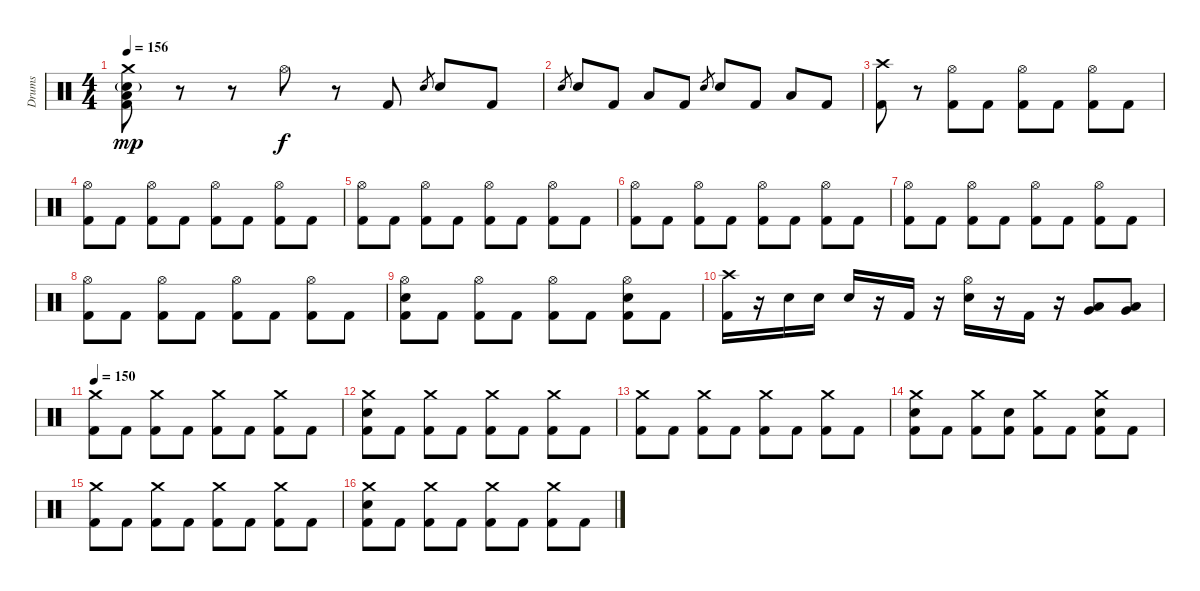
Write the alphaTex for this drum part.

\track ("Drums" "Drums") {instrument percussion}
\staff {score}
\articulation defaults
\ts (4 4)
\tempo 156
\clef neutral
\ks c
("Crash medium (hit)" "Electric Snare (hit)"{g} "Low Floor Tom (hit)" "Kick (hit) 2").8{dy mp} r.8 r.8 "Hi-Hat (open)".8{dy f} r.8 "Kick (hit) 2".8 "Electric Snare (hit)".8{gr} "Electric Snare (hit)".8 "Kick (hit) 2".8 |
"Electric Snare (hit)".8{gr} "Electric Snare (hit)".8 "Kick (hit) 2".8 "Low Tom (hit)".8 "Kick (hit) 2".8 "Electric Snare (hit)".8{gr} "Electric Snare (hit)".8 "Kick (hit) 2".8 "Low Tom (hit)".8 "Kick (hit) 2".8 |
("Crash high (hit)" "Kick (hit) 2").8 r.8 ("Hi-Hat (open)" "Kick (hit) 2").8 "Kick (hit) 2".8 ("Hi-Hat (open)" "Kick (hit) 2").8 "Kick (hit) 2".8 ("Hi-Hat (open)" "Kick (hit) 2").8 "Kick (hit) 2".8 |
("Hi-Hat (open)" "Kick (hit) 2").8 "Kick (hit) 2".8 ("Hi-Hat (open)" "Kick (hit) 2").8 "Kick (hit) 2".8 ("Hi-Hat (open)" "Kick (hit) 2").8 "Kick (hit) 2".8 ("Hi-Hat (open)" "Kick (hit) 2").8 "Kick (hit) 2".8 |
("Hi-Hat (open)" "Kick (hit) 2").8 "Kick (hit) 2".8 ("Hi-Hat (open)" "Kick (hit) 2").8 "Kick (hit) 2".8 ("Hi-Hat (open)" "Kick (hit) 2").8 "Kick (hit) 2".8 ("Hi-Hat (open)" "Kick (hit) 2").8 "Kick (hit) 2".8 |
("Hi-Hat (open)" "Kick (hit) 2").8 "Kick (hit) 2".8 ("Hi-Hat (open)" "Kick (hit) 2").8 "Kick (hit) 2".8 ("Hi-Hat (open)" "Kick (hit) 2").8 "Kick (hit) 2".8 ("Hi-Hat (open)" "Kick (hit) 2").8 "Kick (hit) 2".8 |
("Hi-Hat (open)" "Kick (hit) 2").8 "Kick (hit) 2".8 ("Hi-Hat (open)" "Kick (hit) 2").8 "Kick (hit) 2".8 ("Hi-Hat (open)" "Kick (hit) 2").8 "Kick (hit) 2".8 ("Hi-Hat (open)" "Kick (hit) 2").8 "Kick (hit) 2".8 |
("Hi-Hat (open)" "Kick (hit) 2").8 "Kick (hit) 2".8 ("Hi-Hat (open)" "Kick (hit) 2").8 "Kick (hit) 2".8 ("Hi-Hat (open)" "Kick (hit) 2").8 "Kick (hit) 2".8 ("Hi-Hat (open)" "Kick (hit) 2").8 "Kick (hit) 2".8 |
("Hi-Hat (open)" "Electric Snare (hit)" "Kick (hit) 2").8 "Kick (hit) 2".8 ("Hi-Hat (open)" "Kick (hit) 2").8 "Kick (hit) 2".8 ("Hi-Hat (open)" "Kick (hit) 2").8 "Kick (hit) 2".8 ("Hi-Hat (open)" "Electric Snare (hit)" "Kick (hit) 2").8 "Kick (hit) 2".8 |
("Crash high (hit)" "Kick (hit) 2").16 r.16 "Electric Snare (hit)".16 "Electric Snare (hit)".16 "Electric Snare (hit)".16 r.16 "Kick (hit) 2".16 r.16 ("Hi-Hat (open)" "Electric Snare (hit)").16 r.16 "Kick (hit) 2".16 r.16 ("Low Tom (hit)" "Very Low Tom (hit)").8 ("Very Low Tom (hit)" "Low Floor Tom (hit)").8 |
\tempo 150
("Crash medium (hit)" "Kick (hit) 2").8 "Kick (hit) 2".8 ("Crash medium (hit)" "Kick (hit) 2").8 "Kick (hit) 2".8 ("Crash medium (hit)" "Kick (hit) 2").8 "Kick (hit) 2".8 ("Crash medium (hit)" "Kick (hit) 2").8 "Kick (hit) 2".8 |
("Crash medium (hit)" "Electric Snare (hit)" "Kick (hit) 2").8 "Kick (hit) 2".8 ("Crash medium (hit)" "Kick (hit) 2").8 "Kick (hit) 2".8 ("Crash medium (hit)" "Kick (hit) 2").8 "Kick (hit) 2".8 ("Crash medium (hit)" "Kick (hit) 2").8 "Kick (hit) 2".8 |
("Crash medium (hit)" "Kick (hit) 2").8 "Kick (hit) 2".8 ("Crash medium (hit)" "Kick (hit) 2").8 "Kick (hit) 2".8 ("Crash medium (hit)" "Kick (hit) 2").8 "Kick (hit) 2".8 ("Crash medium (hit)" "Kick (hit) 2").8 "Kick (hit) 2".8 |
("Crash medium (hit)" "Electric Snare (hit)" "Kick (hit) 2").8 "Kick (hit) 2".8 ("Crash medium (hit)" "Kick (hit) 2").8 ("Electric Snare (hit)" "Kick (hit) 2").8 ("Crash medium (hit)" "Kick (hit) 2").8 "Kick (hit) 2".8 ("Crash medium (hit)" "Electric Snare (hit)" "Kick (hit) 2").8 "Kick (hit) 2".8 |
("Crash medium (hit)" "Kick (hit) 2").8 "Kick (hit) 2".8 ("Crash medium (hit)" "Kick (hit) 2").8 "Kick (hit) 2".8 ("Crash medium (hit)" "Kick (hit) 2").8 "Kick (hit) 2".8 ("Crash medium (hit)" "Kick (hit) 2").8 "Kick (hit) 2".8 |
("Crash medium (hit)" "Electric Snare (hit)" "Kick (hit) 2").8 "Kick (hit) 2".8 ("Crash medium (hit)" "Kick (hit) 2").8 "Kick (hit) 2".8 ("Crash medium (hit)" "Kick (hit) 2").8 "Kick (hit) 2".8 ("Crash medium (hit)" "Kick (hit) 2").8 "Kick (hit) 2".8
